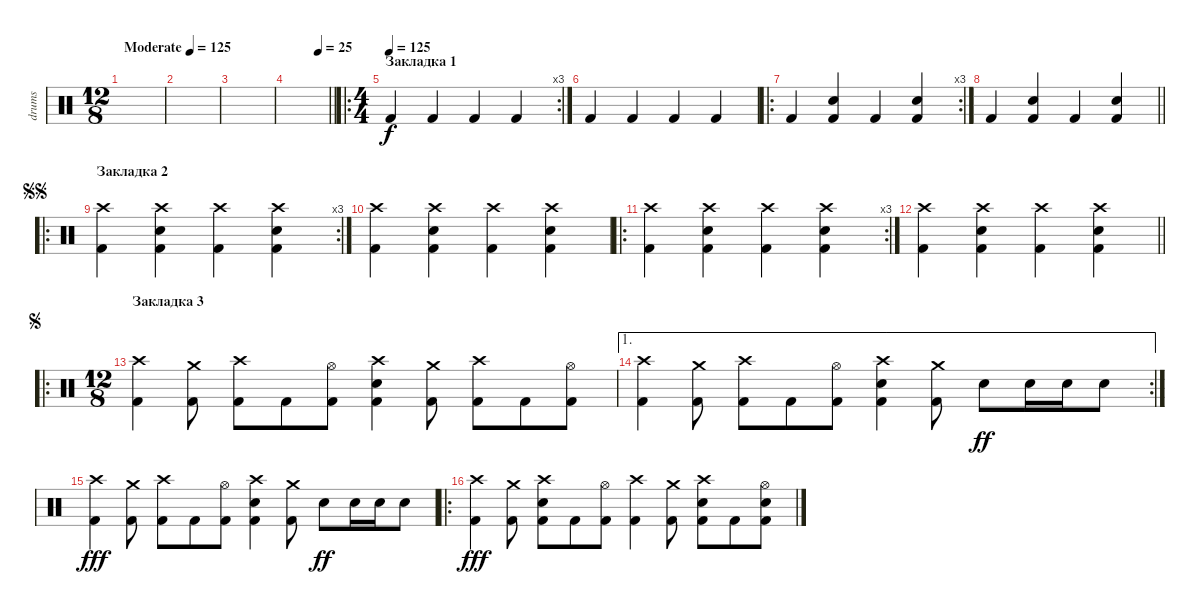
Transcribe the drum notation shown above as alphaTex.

\track ("drums" "drums") {instrument percussion}
\staff {score}
\articulation defaults
\ts (12 8)
\tempo (125 "Moderate")
\clef neutral
\ks c
|
|
|
\tempo (25 0.75)
\barLineRight lightlight
|
\ro
\rc 3
\ts (4 4)
\section ("" "Закладка 1")
\tempo (125)
"Kick (hit) 2".4 "Kick (hit) 2".4 "Kick (hit) 2".4 "Kick (hit) 2".4 |
"Kick (hit) 2".4 "Kick (hit) 2".4 "Kick (hit) 2".4 "Kick (hit) 2".4 |
\ro
\rc 3 "Kick (hit) 2".4
("Electric Snare (hit)" "Kick (hit) 2").4 "Kick (hit) 2".4 ("Electric Snare (hit)" "Kick (hit) 2").4 |
\barLineRight lightlight "Kick (hit) 2".4
("Electric Snare (hit)" "Kick (hit) 2").4 "Kick (hit) 2".4 ("Electric Snare (hit)" "Kick (hit) 2").4 |
\ro
\rc 3
\section ("" "Закладка 2")
\jump segnosegno
("Crash high (hit)" "Kick (hit) 2").4 ("Crash high (hit)" "Electric Snare (hit)" "Kick (hit) 2").4 ("Crash high (hit)" "Kick (hit) 2").4 ("Crash high (hit)" "Electric Snare (hit)" "Kick (hit) 2").4 |
("Crash high (hit)" "Kick (hit) 2").4 ("Crash high (hit)" "Electric Snare (hit)" "Kick (hit) 2").4 ("Crash high (hit)" "Kick (hit) 2").4 ("Crash high (hit)" "Electric Snare (hit)" "Kick (hit) 2").4 |
\ro
\rc 3
("Crash high (hit)" "Kick (hit) 2").4 ("Crash high (hit)" "Electric Snare (hit)" "Kick (hit) 2").4 ("Crash high (hit)" "Kick (hit) 2").4 ("Crash high (hit)" "Electric Snare (hit)" "Kick (hit) 2").4 |
\barLineRight lightlight
("Crash high (hit)" "Kick (hit) 2").4 ("Crash high (hit)" "Electric Snare (hit)" "Kick (hit) 2").4 ("Crash high (hit)" "Kick (hit) 2").4 ("Crash high (hit)" "Electric Snare (hit)" "Kick (hit) 2").4 |
\ro
\ts (12 8)
\section ("" "Закладка 3")
\jump segno
("Crash high (hit)" "Kick (hit) 2").4 ("Crash medium (hit)" "Kick (hit) 2").8 ("Crash high (hit)" "Kick (hit) 2").8 "Kick (hit) 2".8 ("Hi-Hat (open)" "Kick (hit) 2").8 ("Crash high (hit)" "Electric Snare (hit)" "Kick (hit) 2").4 ("Crash medium (hit)" "Kick (hit) 2").8 ("Crash high (hit)" "Kick (hit) 2").8 "Kick (hit) 2".8 ("Hi-Hat (open)" "Kick (hit) 2").8 |
\ae 1
\rc 2
("Crash high (hit)" "Kick (hit) 2").4 ("Crash medium (hit)" "Kick (hit) 2").8 ("Crash high (hit)" "Kick (hit) 2").8 "Kick (hit) 2".8 ("Hi-Hat (open)" "Kick (hit) 2").8 ("Crash high (hit)" "Electric Snare (hit)" "Kick (hit) 2").4 ("Crash medium (hit)" "Kick (hit) 2").8 "Electric Snare (hit)".8{dy ff} "Electric Snare (hit)".16 "Electric Snare (hit)".16 "Electric Snare (hit)".8 |
("Crash high (hit)" "Kick (hit) 2").4{dy fff} ("Crash medium (hit)" "Kick (hit) 2").8 ("Crash high (hit)" "Kick (hit) 2").8 "Kick (hit) 2".8 ("Hi-Hat (open)" "Kick (hit) 2").8 ("Crash high (hit)" "Electric Snare (hit)" "Kick (hit) 2").4 ("Crash medium (hit)" "Kick (hit) 2").8 "Electric Snare (hit)".8{dy ff} "Electric Snare (hit)".16 "Electric Snare (hit)".16 "Electric Snare (hit)".8 |
\ro
("Crash high (hit)" "Kick (hit) 2").4{dy fff} ("Crash medium (hit)" "Kick (hit) 2").8 ("Crash high (hit)" "Electric Snare (hit)" "Kick (hit) 2").8 "Kick (hit) 2".8 ("Hi-Hat (open)" "Kick (hit) 2").8 ("Crash high (hit)" "Kick (hit) 2").4 ("Crash medium (hit)" "Kick (hit) 2").8 ("Crash high (hit)" "Electric Snare (hit)" "Kick (hit) 2").8 "Kick (hit) 2".8 ("Hi-Hat (open)" "Electric Snare (hit)" "Kick (hit) 2").8
